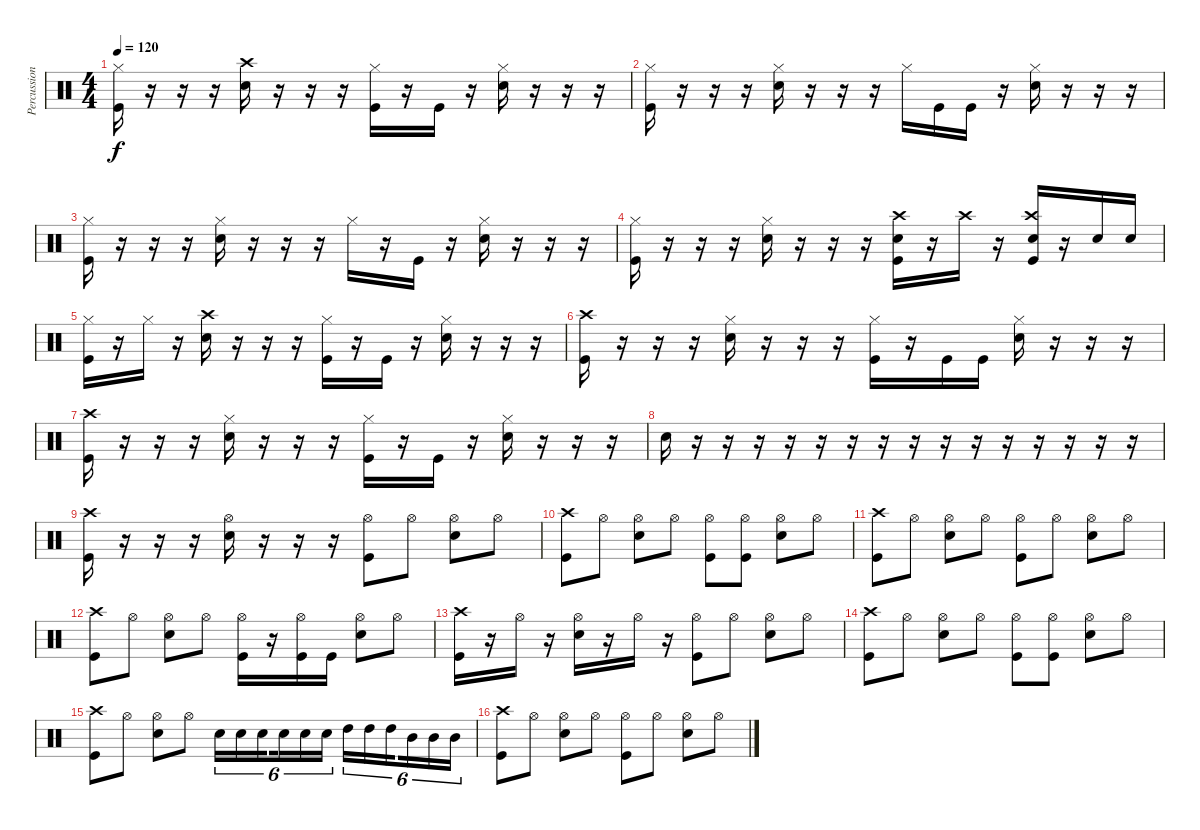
\track ("Percussion" "Percussion") {instrument percussion}
\staff {score}
\articulation defaults
\ts (4 4)
\tempo 120
\clef neutral
\ks c
("Hi-Hat (closed)" "Kick (hit)").16{dy f} r.16 r.16 r.16 ("Crash high (hit)" "Snare (hit) 2").16 r.16 r.16 r.16 ("Hi-Hat (closed)" "Kick (hit)").16 r.16 "Kick (hit)".16 r.16 ("Hi-Hat (closed)" "Snare (hit) 2").16 r.16 r.16 r.16 |
("Hi-Hat (closed)" "Kick (hit)").16 r.16 r.16 r.16 ("Hi-Hat (closed)" "Snare (hit) 2").16 r.16 r.16 r.16 "Hi-Hat (closed)".16 "Kick (hit)".16 "Kick (hit)".16 r.16 ("Hi-Hat (closed)" "Snare (hit) 2").16 r.16 r.16 r.16 |
("Hi-Hat (closed)" "Kick (hit)").16 r.16 r.16 r.16 ("Hi-Hat (closed)" "Snare (hit) 2").16 r.16 r.16 r.16 "Hi-Hat (closed)".16 r.16 "Kick (hit)".16 r.16 ("Hi-Hat (closed)" "Snare (hit) 2").16 r.16 r.16 r.16 |
("Hi-Hat (closed)" "Kick (hit)").16 r.16 r.16 r.16 ("Hi-Hat (closed)" "Snare (hit) 2").16 r.16 r.16 r.16 ("Crash high (hit)" "Snare (hit) 2" "Kick (hit)").16 r.16 "Crash high (hit)".16 r.16 ("Crash high (hit)" "Snare (hit) 2" "Kick (hit)").16 r.16 "Snare (hit) 2".16 "Snare (hit) 2".16 |
("Hi-Hat (closed)" "Kick (hit)").16 r.16 "Hi-Hat (closed)".16 r.16 ("Crash high (hit)" "Snare (hit) 2").16 r.16 r.16 r.16 ("Hi-Hat (closed)" "Kick (hit)").16 r.16 "Kick (hit)".16 r.16 ("Hi-Hat (closed)" "Snare (hit) 2").16 r.16 r.16 r.16 |
("Crash high (hit)" "Kick (hit)").16 r.16 r.16 r.16 ("Hi-Hat (closed)" "Snare (hit) 2").16 r.16 r.16 r.16 ("Hi-Hat (closed)" "Kick (hit)").16 r.16 "Kick (hit)".16 "Kick (hit)".16 ("Hi-Hat (closed)" "Snare (hit) 2").16 r.16 r.16 r.16 |
("Crash high (hit)" "Kick (hit)").16 r.16 r.16 r.16 ("Hi-Hat (closed)" "Snare (hit) 2").16 r.16 r.16 r.16 ("Hi-Hat (closed)" "Kick (hit)").16 r.16 "Kick (hit)".16 r.16 ("Hi-Hat (closed)" "Snare (hit) 2").16 r.16 r.16 r.16 |
"Snare (hit) 2".16 r.16 r.16 r.16 r.16 r.16 r.16 r.16 r.16 r.16 r.16 r.16 r.16 r.16 r.16 r.16 |
("Crash high (hit)" "Kick (hit)").16 r.16 r.16 r.16 ("Hi-Hat (open)" "Snare (hit) 2").16 r.16 r.16 r.16 ("Hi-Hat (open)" "Kick (hit)").8 "Hi-Hat (open)".8 ("Hi-Hat (open)" "Snare (hit) 2").8 "Hi-Hat (open)".8 |
("Crash high (hit)" "Kick (hit)").8 "Hi-Hat (open)".8 ("Hi-Hat (open)" "Snare (hit) 2").8 "Hi-Hat (open)".8 ("Hi-Hat (open)" "Kick (hit)").8 ("Hi-Hat (open)" "Kick (hit)").8 ("Hi-Hat (open)" "Snare (hit) 2").8 "Hi-Hat (open)".8 |
("Crash high (hit)" "Kick (hit)").8 "Hi-Hat (open)".8 ("Hi-Hat (open)" "Snare (hit) 2").8 "Hi-Hat (open)".8 ("Hi-Hat (open)" "Kick (hit)").8 "Hi-Hat (open)".8 ("Hi-Hat (open)" "Snare (hit) 2").8 "Hi-Hat (open)".8 |
("Crash high (hit)" "Kick (hit)").8 "Hi-Hat (open)".8 ("Hi-Hat (open)" "Snare (hit) 2").8 "Hi-Hat (open)".8 ("Hi-Hat (open)" "Kick (hit)").16 r.16 ("Hi-Hat (open)" "Kick (hit)").16 "Kick (hit)".16 ("Hi-Hat (open)" "Snare (hit) 2").8 "Hi-Hat (open)".8 |
("Crash high (hit)" "Kick (hit)").16 r.16 "Hi-Hat (open)".16 r.16 ("Hi-Hat (open)" "Snare (hit) 2").16 r.16 "Hi-Hat (open)".16 r.16 ("Hi-Hat (open)" "Kick (hit)").8 "Hi-Hat (open)".8 ("Hi-Hat (open)" "Snare (hit) 2").8 "Hi-Hat (open)".8 |
("Crash high (hit)" "Kick (hit)").8 "Hi-Hat (open)".8 ("Hi-Hat (open)" "Snare (hit) 2").8 "Hi-Hat (open)".8 ("Hi-Hat (open)" "Kick (hit)").8 ("Hi-Hat (open)" "Kick (hit)").8 ("Hi-Hat (open)" "Snare (hit) 2").8 "Hi-Hat (open)".8 |
("Crash high (hit)" "Kick (hit)").8 "Hi-Hat (open)".8 ("Hi-Hat (open)" "Snare (hit) 2").8 "Hi-Hat (open)".8 "Snare (hit) 2".16{tu (6 4)} "Snare (hit) 2".16{tu (6 4)} "Snare (hit) 2".16{tu (6 4) beam splitsecondary} "Snare (hit) 2".16{tu (6 4)} "Snare (hit) 2".16{tu (6 4)} "Snare (hit) 2".16{tu (6 4)} "High Tom (hit)".16{tu (6 4)} "High Tom (hit)".16{tu (6 4)} "High Tom (hit)".16{tu (6 4) beam splitsecondary} "Mid Tom (hit)".16{tu (6 4)} "Mid Tom (hit)".16{tu (6 4)} "Mid Tom (hit)".16{tu (6 4)} |
("Crash high (hit)" "Kick (hit)").8 "Hi-Hat (open)".8 ("Hi-Hat (open)" "Snare (hit) 2").8 "Hi-Hat (open)".8 ("Hi-Hat (open)" "Kick (hit)").8 "Hi-Hat (open)".8 ("Hi-Hat (open)" "Snare (hit) 2").8 "Hi-Hat (open)".8
